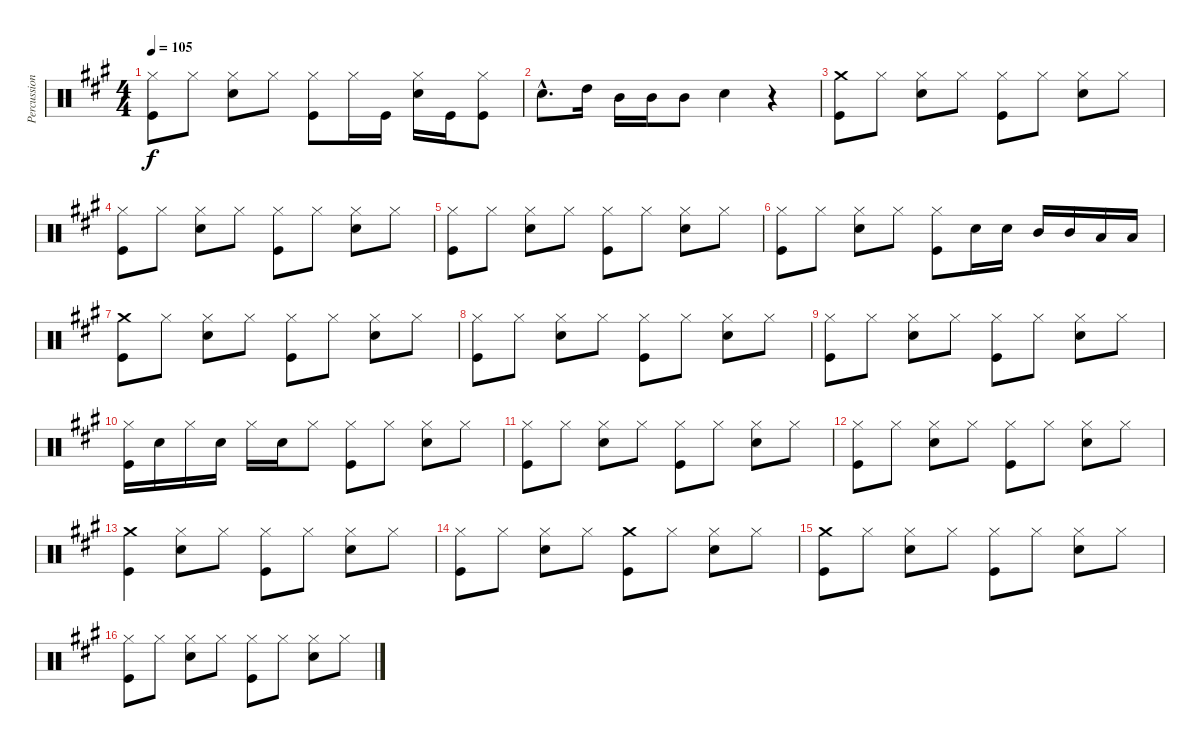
\track ("Percussion" "Percussion") {instrument percussion}
\staff {score}
\articulation defaults
\ts (4 4)
\tempo 105
\clef neutral
\ks a
("Hi-Hat (closed)" "Kick (hit)").8{dy f} "Hi-Hat (closed)".8 ("Hi-Hat (closed)" "Snare (hit) 2").8 "Hi-Hat (closed)".8 ("Hi-Hat (closed)" "Kick (hit)").8 "Hi-Hat (closed)".16 "Kick (hit)".16 ("Hi-Hat (closed)" "Snare (hit) 2").16 "Kick (hit)".16 ("Hi-Hat (closed)" "Kick (hit)").8 |
"Snare (hit) 2"{hac}.8{d} "High Tom (hit)".16 "Mid Tom (hit)".16 "Mid Tom (hit)".16 "Mid Tom (hit)".8 "Snare (hit) 2".4 r.4 |
("Crash medium (hit)" "Kick (hit)").8 "Hi-Hat (closed)".8 ("Hi-Hat (closed)" "Snare (hit) 2").8 "Hi-Hat (closed)".8 ("Hi-Hat (closed)" "Kick (hit)").8 "Hi-Hat (closed)".8 ("Hi-Hat (closed)" "Snare (hit) 2").8 "Hi-Hat (closed)".8 |
("Hi-Hat (closed)" "Kick (hit)").8 "Hi-Hat (closed)".8 ("Hi-Hat (closed)" "Snare (hit) 2").8 "Hi-Hat (closed)".8 ("Hi-Hat (closed)" "Kick (hit)").8 "Hi-Hat (closed)".8 ("Hi-Hat (closed)" "Snare (hit) 2").8 "Hi-Hat (closed)".8 |
("Hi-Hat (closed)" "Kick (hit)").8 "Hi-Hat (closed)".8 ("Hi-Hat (closed)" "Snare (hit) 2").8 "Hi-Hat (closed)".8 ("Hi-Hat (closed)" "Kick (hit)").8 "Hi-Hat (closed)".8 ("Hi-Hat (closed)" "Snare (hit) 2").8 "Hi-Hat (closed)".8 |
("Hi-Hat (closed)" "Kick (hit)").8 "Hi-Hat (closed)".8 ("Hi-Hat (closed)" "Snare (hit) 2").8 "Hi-Hat (closed)".8 ("Hi-Hat (closed)" "Kick (hit)").8 "Snare (hit) 2".16 "Snare (hit) 2".16 "Mid Tom (hit)".16 "Mid Tom (hit)".16 "Low Tom (hit)".16 "Low Tom (hit)".16 |
("Crash medium (hit)" "Kick (hit)").8 "Hi-Hat (closed)".8 ("Hi-Hat (closed)" "Snare (hit) 2").8 "Hi-Hat (closed)".8 ("Hi-Hat (closed)" "Kick (hit)").8 "Hi-Hat (closed)".8 ("Hi-Hat (closed)" "Snare (hit) 2").8 "Hi-Hat (closed)".8 |
("Hi-Hat (closed)" "Kick (hit)").8 "Hi-Hat (closed)".8 ("Hi-Hat (closed)" "Snare (hit) 2").8 "Hi-Hat (closed)".8 ("Hi-Hat (closed)" "Kick (hit)").8 "Hi-Hat (closed)".8 ("Hi-Hat (closed)" "Snare (hit) 2").8 "Hi-Hat (closed)".8 |
("Hi-Hat (closed)" "Kick (hit)").8 "Hi-Hat (closed)".8 ("Hi-Hat (closed)" "Snare (hit) 2").8 "Hi-Hat (closed)".8 ("Hi-Hat (closed)" "Kick (hit)").8 "Hi-Hat (closed)".8 ("Hi-Hat (closed)" "Snare (hit) 2").8 "Hi-Hat (closed)".8 |
("Hi-Hat (closed)" "Kick (hit)").16 "Snare (hit) 2".16 "Hi-Hat (closed)".16 "Snare (hit) 2".16 "Hi-Hat (closed)".16 "Snare (hit) 2".16 "Hi-Hat (closed)".8 ("Hi-Hat (closed)" "Kick (hit)").8 "Hi-Hat (closed)".8 ("Hi-Hat (closed)" "Snare (hit) 2").8 "Hi-Hat (closed)".8 |
("Hi-Hat (closed)" "Kick (hit)").8 "Hi-Hat (closed)".8 ("Hi-Hat (closed)" "Snare (hit) 2").8 "Hi-Hat (closed)".8 ("Hi-Hat (closed)" "Kick (hit)").8 "Hi-Hat (closed)".8 ("Hi-Hat (closed)" "Snare (hit) 2").8 "Hi-Hat (closed)".8 |
("Hi-Hat (closed)" "Kick (hit)").8 "Hi-Hat (closed)".8 ("Hi-Hat (closed)" "Snare (hit) 2").8 "Hi-Hat (closed)".8 ("Hi-Hat (closed)" "Kick (hit)").8 "Hi-Hat (closed)".8 ("Hi-Hat (closed)" "Snare (hit) 2").8 "Hi-Hat (closed)".8 |
("Crash medium (hit)" "Kick (hit)").4 ("Hi-Hat (closed)" "Snare (hit) 2").8 "Hi-Hat (closed)".8 ("Hi-Hat (closed)" "Kick (hit)").8 "Hi-Hat (closed)".8 ("Hi-Hat (closed)" "Snare (hit) 2").8 "Hi-Hat (closed)".8 |
("Hi-Hat (closed)" "Kick (hit)").8 "Hi-Hat (closed)".8 ("Hi-Hat (closed)" "Snare (hit) 2").8 "Hi-Hat (closed)".8 ("Crash medium (hit)" "Kick (hit)").8 "Hi-Hat (closed)".8 ("Hi-Hat (closed)" "Snare (hit) 2").8 "Hi-Hat (closed)".8 |
("Crash medium (hit)" "Kick (hit)").8 "Hi-Hat (closed)".8 ("Hi-Hat (closed)" "Snare (hit) 2").8 "Hi-Hat (closed)".8 ("Hi-Hat (closed)" "Kick (hit)").8 "Hi-Hat (closed)".8 ("Hi-Hat (closed)" "Snare (hit) 2").8 "Hi-Hat (closed)".8 |
("Hi-Hat (closed)" "Kick (hit)").8 "Hi-Hat (closed)".8 ("Hi-Hat (closed)" "Snare (hit) 2").8 "Hi-Hat (closed)".8 ("Hi-Hat (closed)" "Kick (hit)").8 "Hi-Hat (closed)".8 ("Hi-Hat (closed)" "Snare (hit) 2").8 "Hi-Hat (closed)".8
